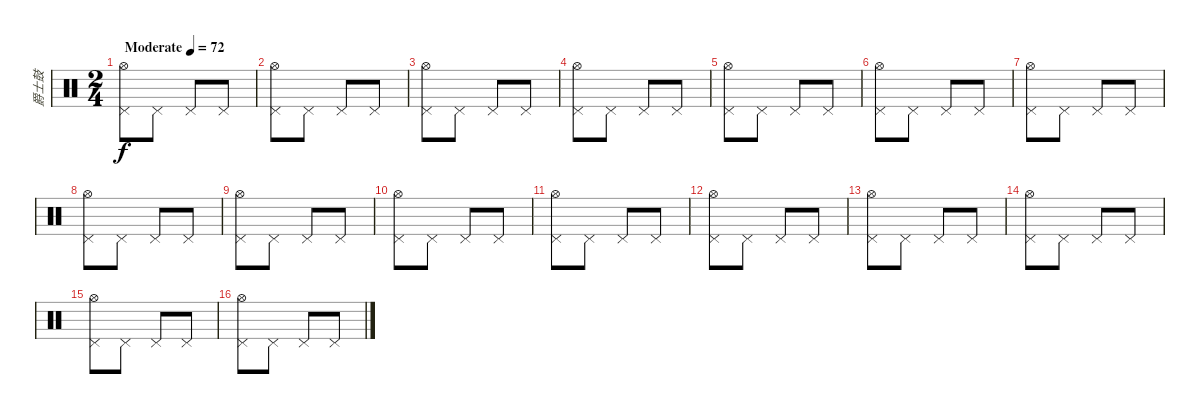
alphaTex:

\track ("爵士鼓" "爵士鼓") {instrument percussion}
\staff {score}
\articulation defaults
\ts (2 4)
\tempo (72 "Moderate")
\clef neutral
\ks c
("Pedal Hi-Hat (hit)" "Hi-Hat (open)").8{dy f} "Pedal Hi-Hat (hit)".8 "Pedal Hi-Hat (hit)".8 "Pedal Hi-Hat (hit)".8 |
("Pedal Hi-Hat (hit)" "Hi-Hat (open)").8 "Pedal Hi-Hat (hit)".8 "Pedal Hi-Hat (hit)".8 "Pedal Hi-Hat (hit)".8 |
("Pedal Hi-Hat (hit)" "Hi-Hat (open)").8 "Pedal Hi-Hat (hit)".8 "Pedal Hi-Hat (hit)".8 "Pedal Hi-Hat (hit)".8 |
("Pedal Hi-Hat (hit)" "Hi-Hat (open)").8 "Pedal Hi-Hat (hit)".8 "Pedal Hi-Hat (hit)".8 "Pedal Hi-Hat (hit)".8 |
("Pedal Hi-Hat (hit)" "Hi-Hat (open)").8 "Pedal Hi-Hat (hit)".8 "Pedal Hi-Hat (hit)".8 "Pedal Hi-Hat (hit)".8 |
("Pedal Hi-Hat (hit)" "Hi-Hat (open)").8 "Pedal Hi-Hat (hit)".8 "Pedal Hi-Hat (hit)".8 "Pedal Hi-Hat (hit)".8 |
("Pedal Hi-Hat (hit)" "Hi-Hat (open)").8 "Pedal Hi-Hat (hit)".8 "Pedal Hi-Hat (hit)".8 "Pedal Hi-Hat (hit)".8 |
("Pedal Hi-Hat (hit)" "Hi-Hat (open)").8 "Pedal Hi-Hat (hit)".8 "Pedal Hi-Hat (hit)".8 "Pedal Hi-Hat (hit)".8 |
("Pedal Hi-Hat (hit)" "Hi-Hat (open)").8 "Pedal Hi-Hat (hit)".8 "Pedal Hi-Hat (hit)".8 "Pedal Hi-Hat (hit)".8 |
("Pedal Hi-Hat (hit)" "Hi-Hat (open)").8 "Pedal Hi-Hat (hit)".8 "Pedal Hi-Hat (hit)".8 "Pedal Hi-Hat (hit)".8 |
("Pedal Hi-Hat (hit)" "Hi-Hat (open)").8 "Pedal Hi-Hat (hit)".8 "Pedal Hi-Hat (hit)".8 "Pedal Hi-Hat (hit)".8 |
("Pedal Hi-Hat (hit)" "Hi-Hat (open)").8 "Pedal Hi-Hat (hit)".8 "Pedal Hi-Hat (hit)".8 "Pedal Hi-Hat (hit)".8 |
("Pedal Hi-Hat (hit)" "Hi-Hat (open)").8 "Pedal Hi-Hat (hit)".8 "Pedal Hi-Hat (hit)".8 "Pedal Hi-Hat (hit)".8 |
("Pedal Hi-Hat (hit)" "Hi-Hat (open)").8 "Pedal Hi-Hat (hit)".8 "Pedal Hi-Hat (hit)".8 "Pedal Hi-Hat (hit)".8 |
("Pedal Hi-Hat (hit)" "Hi-Hat (open)").8 "Pedal Hi-Hat (hit)".8 "Pedal Hi-Hat (hit)".8 "Pedal Hi-Hat (hit)".8 |
("Pedal Hi-Hat (hit)" "Hi-Hat (open)").8 "Pedal Hi-Hat (hit)".8 "Pedal Hi-Hat (hit)".8 "Pedal Hi-Hat (hit)".8
